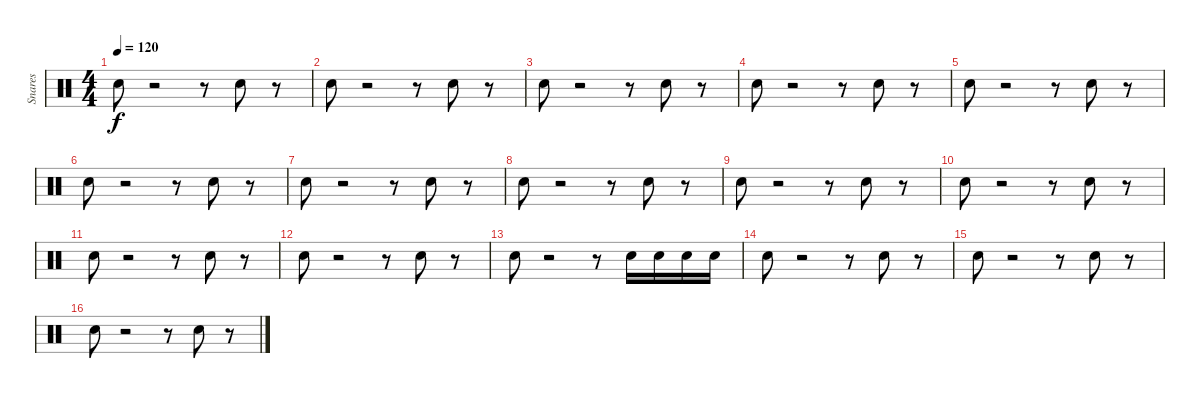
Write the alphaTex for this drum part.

\track ("Snares              " "Snares    ") {instrument percussion}
\staff {score}
\articulation defaults
\ts (4 4)
\tempo 120
\clef neutral
\ks c "Snare (hit) 2".8{dy f}
r.2 r.8 "Snare (hit) 2".8 r.8 |
"Snare (hit) 2".8 r.2 r.8 "Snare (hit) 2".8 r.8 |
"Snare (hit) 2".8 r.2 r.8 "Snare (hit) 2".8 r.8 |
"Snare (hit) 2".8 r.2 r.8 "Snare (hit) 2".8 r.8 |
"Snare (hit) 2".8 r.2 r.8 "Snare (hit) 2".8 r.8 |
"Snare (hit) 2".8 r.2 r.8 "Snare (hit) 2".8 r.8 |
"Snare (hit) 2".8 r.2 r.8 "Snare (hit) 2".8 r.8 |
"Snare (hit) 2".8 r.2 r.8 "Snare (hit) 2".8 r.8 |
"Snare (hit) 2".8 r.2 r.8 "Snare (hit) 2".8 r.8 |
"Snare (hit) 2".8 r.2 r.8 "Snare (hit) 2".8 r.8 |
"Snare (hit) 2".8 r.2 r.8 "Snare (hit) 2".8 r.8 |
"Snare (hit) 2".8 r.2 r.8 "Snare (hit) 2".8 r.8 |
"Snare (hit) 2".8 r.2 r.8 "Snare (hit) 2".16 "Snare (hit) 2".16 "Snare (hit) 2".16 "Snare (hit) 2".16 |
"Snare (hit) 2".8 r.2 r.8 "Snare (hit) 2".8 r.8 |
"Snare (hit) 2".8 r.2 r.8 "Snare (hit) 2".8 r.8 |
"Snare (hit) 2".8 r.2 r.8 "Snare (hit) 2".8 r.8
